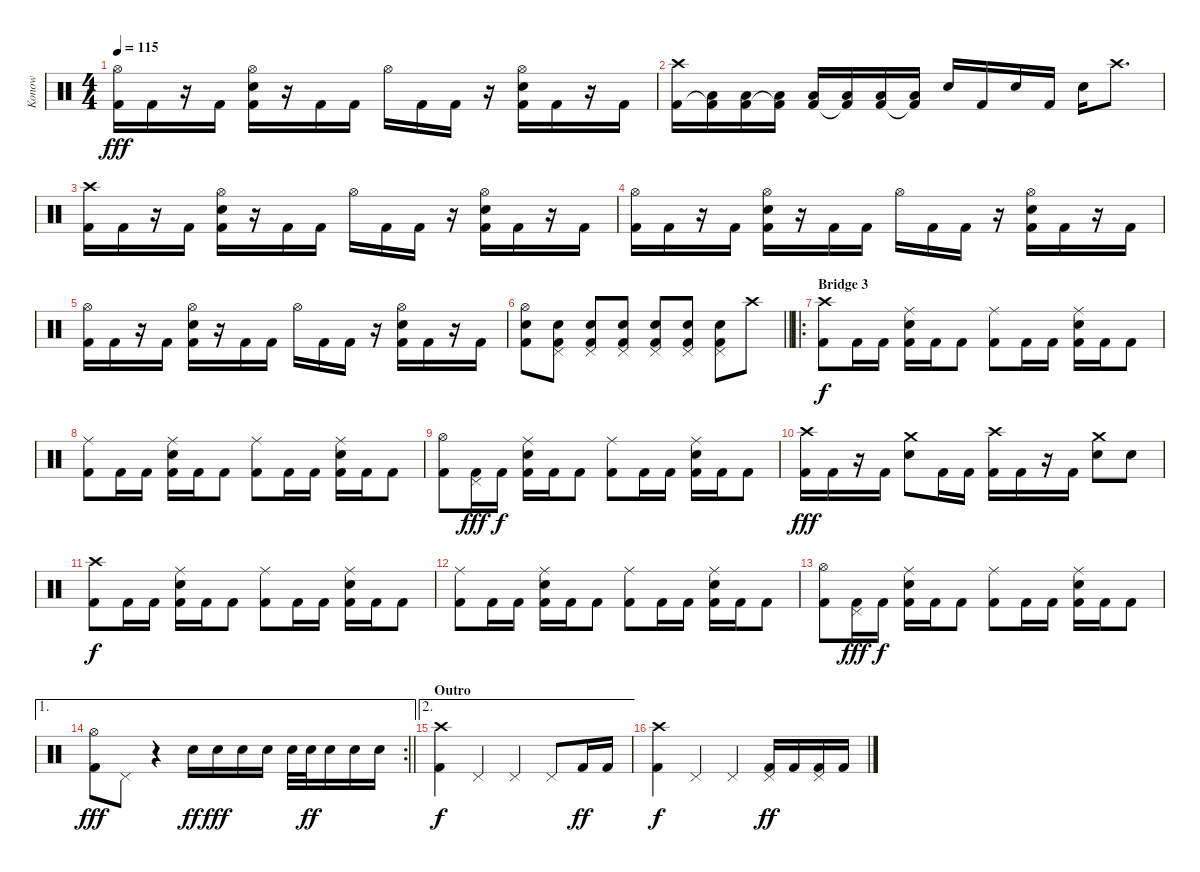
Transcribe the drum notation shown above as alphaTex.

\track ("Konow" "Konow") {instrument percussion}
\staff {score}
\articulation defaults
\ts (4 4)
\tempo 115
\clef neutral
\ks c
("Hi-Hat (open)" "Kick (hit) 2").16{dy fff} "Kick (hit) 2".16 r.16 "Kick (hit) 2".16 ("Hi-Hat (open)" "Electric Snare (hit)" "Kick (hit) 2").16 r.16 "Kick (hit) 2".16 "Kick (hit) 2".16 "Hi-Hat (open)".16 "Kick (hit) 2".16 "Kick (hit) 2".16 r.16 ("Hi-Hat (open)" "Electric Snare (hit)" "Kick (hit) 2").16 "Kick (hit) 2".16 r.16 "Kick (hit) 2".16 |
("Crash high (hit)" "Kick (hit) 2").16 ("Low Tom (hit)" "Kick (hit) 2"{t}).16 ("Low Tom (hit)" "Kick (hit) 2").16 ("Low Tom (hit)" "Kick (hit) 2"{t}).16 ("Low Tom (hit)" "Kick (hit) 2").16 ("Low Tom (hit)" "Kick (hit) 2"{t}).16 ("Low Tom (hit)" "Kick (hit) 2").16 ("Low Tom (hit)" "Kick (hit) 2"{t}).16 "Electric Snare (hit)".16 "Kick (hit) 2".16 "Electric Snare (hit)".16 "Kick (hit) 2".16 "Electric Snare (hit)".16 "Crash high (hit)".8{d} |
("Crash high (hit)" "Kick (hit) 2").16 "Kick (hit) 2".16 r.16 "Kick (hit) 2".16 ("Hi-Hat (open)" "Electric Snare (hit)" "Kick (hit) 2").16 r.16 "Kick (hit) 2".16 "Kick (hit) 2".16 "Hi-Hat (open)".16 "Kick (hit) 2".16 "Kick (hit) 2".16 r.16 ("Hi-Hat (open)" "Electric Snare (hit)" "Kick (hit) 2").16 "Kick (hit) 2".16 r.16 "Kick (hit) 2".16 |
("Hi-Hat (open)" "Kick (hit) 2").16 "Kick (hit) 2".16 r.16 "Kick (hit) 2".16 ("Hi-Hat (open)" "Electric Snare (hit)" "Kick (hit) 2").16 r.16 "Kick (hit) 2".16 "Kick (hit) 2".16 "Hi-Hat (open)".16 "Kick (hit) 2".16 "Kick (hit) 2".16 r.16 ("Hi-Hat (open)" "Electric Snare (hit)" "Kick (hit) 2").16 "Kick (hit) 2".16 r.16 "Kick (hit) 2".16 |
("Hi-Hat (open)" "Kick (hit) 2").16 "Kick (hit) 2".16 r.16 "Kick (hit) 2".16 ("Hi-Hat (open)" "Electric Snare (hit)" "Kick (hit) 2").16 r.16 "Kick (hit) 2".16 "Kick (hit) 2".16 "Hi-Hat (open)".16 "Kick (hit) 2".16 "Kick (hit) 2".16 r.16 ("Hi-Hat (open)" "Electric Snare (hit)" "Kick (hit) 2").16 "Kick (hit) 2".16 r.16 "Kick (hit) 2".16 |
\barLineRight lightlight
("Hi-Hat (open)" "Electric Snare (hit)" "Kick (hit) 2").8 ("Pedal Hi-Hat (hit)" "Electric Snare (hit)" "Kick (hit) 2").8 ("Pedal Hi-Hat (hit)" "Electric Snare (hit)" "Kick (hit) 2").8 ("Pedal Hi-Hat (hit)" "Electric Snare (hit)" "Kick (hit) 2").8 ("Pedal Hi-Hat (hit)" "Electric Snare (hit)" "Kick (hit) 2").8 ("Pedal Hi-Hat (hit)" "Electric Snare (hit)" "Kick (hit) 2").8 ("Pedal Hi-Hat (hit)" "Electric Snare (hit)" "Kick (hit) 2").8 "Crash high (hit)".8 |
\ro
\section ("" "Bridge 3")
("Crash high (hit)" "Kick (hit) 2").8{dy f} "Kick (hit) 2".16 "Kick (hit) 2".16 ("Electric Snare (hit)" "Ride (middle)" "Kick (hit) 2").16 "Kick (hit) 2".16 "Kick (hit) 2".8 ("Ride (middle)" "Kick (hit) 2").8 "Kick (hit) 2".16 "Kick (hit) 2".16 ("Electric Snare (hit)" "Ride (middle)" "Kick (hit) 2").16 "Kick (hit) 2".16 "Kick (hit) 2".8 |
("Ride (middle)" "Kick (hit) 2").8 "Kick (hit) 2".16 "Kick (hit) 2".16 ("Electric Snare (hit)" "Ride (middle)" "Kick (hit) 2").16 "Kick (hit) 2".16 "Kick (hit) 2".8 ("Ride (middle)" "Kick (hit) 2").8 "Kick (hit) 2".16 "Kick (hit) 2".16 ("Electric Snare (hit)" "Ride (middle)" "Kick (hit) 2").16 "Kick (hit) 2".16 "Kick (hit) 2".8 |
("Hi-Hat (open)" "Kick (hit) 2").8 ("Pedal Hi-Hat (hit)" "Kick (hit) 2").16{dy fff} "Kick (hit) 2".16{dy f} ("Electric Snare (hit)" "Ride (middle)" "Kick (hit) 2").16 "Kick (hit) 2".16 "Kick (hit) 2".8 ("Ride (middle)" "Kick (hit) 2").8 "Kick (hit) 2".16 "Kick (hit) 2".16 ("Electric Snare (hit)" "Ride (middle)" "Kick (hit) 2").16 "Kick (hit) 2".16 "Kick (hit) 2".8 |
("Crash high (hit)" "Kick (hit) 2").16{dy fff} "Kick (hit) 2".16 r.16 "Kick (hit) 2".16 ("Crash medium (hit)" "Electric Snare (hit)").8 "Kick (hit) 2".16 "Kick (hit) 2".16 ("Crash high (hit)" "Kick (hit) 2").16 "Kick (hit) 2".16 r.16 "Kick (hit) 2".16 ("Crash medium (hit)" "Electric Snare (hit)").8 "Electric Snare (hit)".8 |
("Crash high (hit)" "Kick (hit) 2").8{dy f} "Kick (hit) 2".16 "Kick (hit) 2".16 ("Electric Snare (hit)" "Ride (middle)" "Kick (hit) 2").16 "Kick (hit) 2".16 "Kick (hit) 2".8 ("Ride (middle)" "Kick (hit) 2").8 "Kick (hit) 2".16 "Kick (hit) 2".16 ("Electric Snare (hit)" "Ride (middle)" "Kick (hit) 2").16 "Kick (hit) 2".16 "Kick (hit) 2".8 |
("Ride (middle)" "Kick (hit) 2").8 "Kick (hit) 2".16 "Kick (hit) 2".16 ("Electric Snare (hit)" "Ride (middle)" "Kick (hit) 2").16 "Kick (hit) 2".16 "Kick (hit) 2".8 ("Ride (middle)" "Kick (hit) 2").8 "Kick (hit) 2".16 "Kick (hit) 2".16 ("Electric Snare (hit)" "Ride (middle)" "Kick (hit) 2").16 "Kick (hit) 2".16 "Kick (hit) 2".8 |
("Hi-Hat (open)" "Kick (hit) 2").8 ("Pedal Hi-Hat (hit)" "Kick (hit) 2").16{dy fff} "Kick (hit) 2".16{dy f} ("Electric Snare (hit)" "Ride (middle)" "Kick (hit) 2").16 "Kick (hit) 2".16 "Kick (hit) 2".8 ("Ride (middle)" "Kick (hit) 2").8 "Kick (hit) 2".16 "Kick (hit) 2".16 ("Electric Snare (hit)" "Ride (middle)" "Kick (hit) 2").16 "Kick (hit) 2".16 "Kick (hit) 2".8 |
\ae 1
\rc 2
\barLineRight lightlight
("Hi-Hat (open)" "Kick (hit) 2").8{dy fff} "Pedal Hi-Hat (hit)".8 r.4 "Electric Snare (hit)".16{dy ff} "Electric Snare (hit)".16{dy fff} "Electric Snare (hit)".16 "Electric Snare (hit)".16 "Electric Snare (hit)".32 "Electric Snare (hit)".32{dy ff} "Electric Snare (hit)".16 "Electric Snare (hit)".16 "Electric Snare (hit)".16 |
\ae 2
\section ("" "Outro")
("Crash high (hit)" "Kick (hit) 2").4{dy f} "Pedal Hi-Hat (hit)".4 "Pedal Hi-Hat (hit)".4 "Pedal Hi-Hat (hit)".8 "Kick (hit) 2".16{dy ff} "Kick (hit) 2".16 |
("Crash high (hit)" "Kick (hit) 2").4{dy f} "Pedal Hi-Hat (hit)".4 "Pedal Hi-Hat (hit)".4 ("Pedal Hi-Hat (hit)" "Kick (hit) 2").16{dy ff} "Kick (hit) 2".16 ("Pedal Hi-Hat (hit)" "Kick (hit) 2").16 "Kick (hit) 2".16
